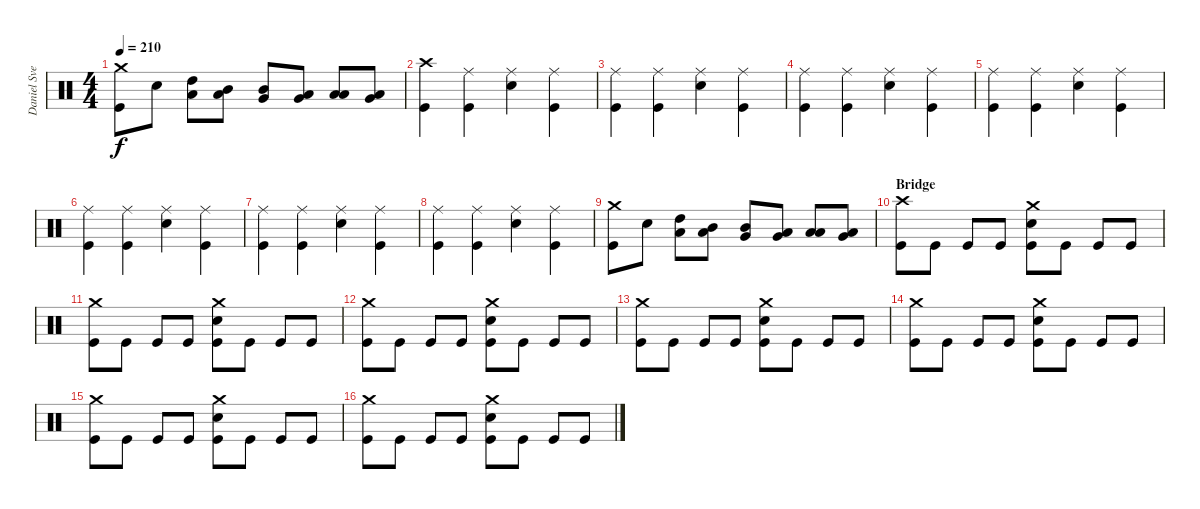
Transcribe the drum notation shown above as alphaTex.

\track ("Daniel Svensson" "Daniel Sve") {instrument percussion}
\staff {score}
\articulation defaults
\ts (4 4)
\tempo 210
\clef neutral
\ks c
("Crash medium (hit)" "Kick (hit)").8{dy f} "Electric Snare (hit)".8 ("Low Tom (hit)" "High Tom (hit)").8 ("Low Tom (hit)" "Mid Tom (hit)").8 ("Very Low Tom (hit)" "Mid Tom (hit)").8 ("Very Low Tom (hit)" "Low Tom (hit)").8 ("Low Floor Tom (hit)" "Low Tom (hit)").8 ("Low Floor Tom (hit)" "Very Low Tom (hit)").8 |
("Crash high (hit)" "Kick (hit)").4 ("Ride (middle)" "Kick (hit)").4 ("Ride (middle)" "Electric Snare (hit)").4 ("Ride (middle)" "Kick (hit)").4 |
("Ride (middle)" "Kick (hit)").4 ("Ride (middle)" "Kick (hit)").4 ("Ride (middle)" "Electric Snare (hit)").4 ("Ride (middle)" "Kick (hit)").4 |
("Ride (middle)" "Kick (hit)").4 ("Ride (middle)" "Kick (hit)").4 ("Ride (middle)" "Electric Snare (hit)").4 ("Ride (middle)" "Kick (hit)").4 |
("Ride (middle)" "Kick (hit)").4 ("Ride (middle)" "Kick (hit)").4 ("Ride (middle)" "Electric Snare (hit)").4 ("Ride (middle)" "Kick (hit)").4 |
("Ride (middle)" "Kick (hit)").4 ("Ride (middle)" "Kick (hit)").4 ("Ride (middle)" "Electric Snare (hit)").4 ("Ride (middle)" "Kick (hit)").4 |
("Ride (middle)" "Kick (hit)").4 ("Ride (middle)" "Kick (hit)").4 ("Ride (middle)" "Electric Snare (hit)").4 ("Ride (middle)" "Kick (hit)").4 |
("Ride (middle)" "Kick (hit)").4 ("Ride (middle)" "Kick (hit)").4 ("Ride (middle)" "Electric Snare (hit)").4 ("Ride (middle)" "Kick (hit)").4 |
("Crash medium (hit)" "Kick (hit)").8 "Electric Snare (hit)".8 ("Low Tom (hit)" "High Tom (hit)").8 ("Low Tom (hit)" "Mid Tom (hit)").8 ("Very Low Tom (hit)" "Mid Tom (hit)").8 ("Very Low Tom (hit)" "Low Tom (hit)").8 ("Low Floor Tom (hit)" "Low Tom (hit)").8 ("Low Floor Tom (hit)" "Very Low Tom (hit)").8 |
\section ("" "Bridge")
("Crash high (hit)" "Kick (hit)").8 "Kick (hit)".8 "Kick (hit)".8 "Kick (hit)".8 ("Crash medium (hit)" "Electric Snare (hit)" "Kick (hit)").8 "Kick (hit)".8 "Kick (hit)".8 "Kick (hit)".8 |
("Crash medium (hit)" "Kick (hit)").8 "Kick (hit)".8 "Kick (hit)".8 "Kick (hit)".8 ("Crash medium (hit)" "Electric Snare (hit)" "Kick (hit)").8 "Kick (hit)".8 "Kick (hit)".8 "Kick (hit)".8 |
("Crash medium (hit)" "Kick (hit)").8 "Kick (hit)".8 "Kick (hit)".8 "Kick (hit)".8 ("Crash medium (hit)" "Electric Snare (hit)" "Kick (hit)").8 "Kick (hit)".8 "Kick (hit)".8 "Kick (hit)".8 |
("Crash medium (hit)" "Kick (hit)").8 "Kick (hit)".8 "Kick (hit)".8 "Kick (hit)".8 ("Crash medium (hit)" "Electric Snare (hit)" "Kick (hit)").8 "Kick (hit)".8 "Kick (hit)".8 "Kick (hit)".8 |
("Crash medium (hit)" "Kick (hit)").8 "Kick (hit)".8 "Kick (hit)".8 "Kick (hit)".8 ("Crash medium (hit)" "Electric Snare (hit)" "Kick (hit)").8 "Kick (hit)".8 "Kick (hit)".8 "Kick (hit)".8 |
("Crash medium (hit)" "Kick (hit)").8 "Kick (hit)".8 "Kick (hit)".8 "Kick (hit)".8 ("Crash medium (hit)" "Electric Snare (hit)" "Kick (hit)").8 "Kick (hit)".8 "Kick (hit)".8 "Kick (hit)".8 |
("Crash medium (hit)" "Kick (hit)").8 "Kick (hit)".8 "Kick (hit)".8 "Kick (hit)".8 ("Crash medium (hit)" "Electric Snare (hit)" "Kick (hit)").8 "Kick (hit)".8 "Kick (hit)".8 "Kick (hit)".8
